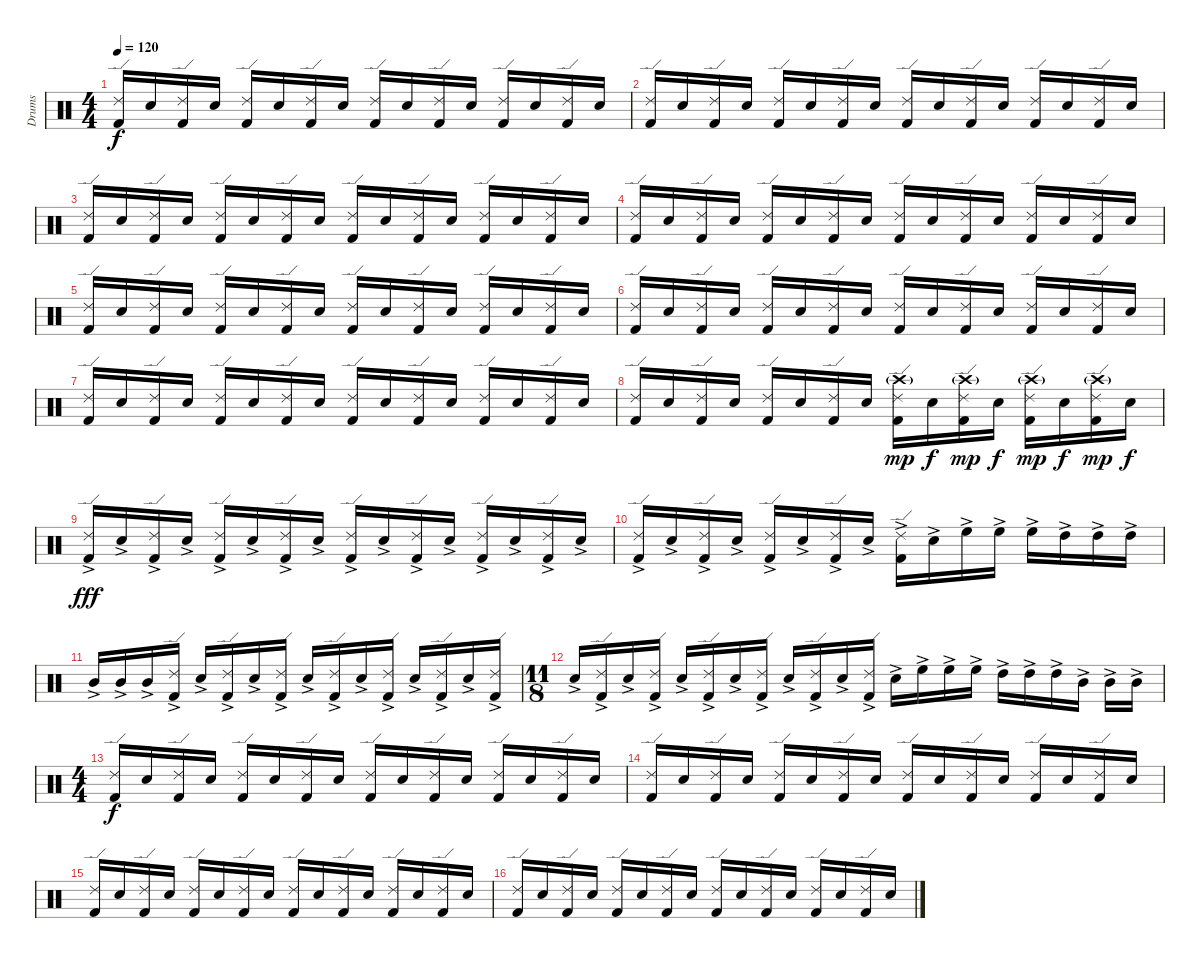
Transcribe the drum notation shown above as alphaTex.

\track ("Drums" "Drums") {instrument percussion}
\staff {score}
\articulation defaults
\ts (4 4)
\tempo 120
\clef neutral
\ks c
("Ride (edge) 2" "Kick (hit) 2").16{dy f} "Electric Snare (hit)".16 ("Ride (edge) 2" "Kick (hit) 2").16 "Electric Snare (hit)".16 ("Ride (edge) 2" "Kick (hit) 2").16 "Electric Snare (hit)".16 ("Ride (edge) 2" "Kick (hit) 2").16 "Electric Snare (hit)".16 ("Ride (edge) 2" "Kick (hit) 2").16 "Electric Snare (hit)".16 ("Ride (edge) 2" "Kick (hit) 2").16 "Electric Snare (hit)".16 ("Ride (edge) 2" "Kick (hit) 2").16 "Electric Snare (hit)".16 ("Ride (edge) 2" "Kick (hit) 2").16 "Electric Snare (hit)".16 |
("Ride (edge) 2" "Kick (hit) 2").16 "Electric Snare (hit)".16 ("Ride (edge) 2" "Kick (hit) 2").16 "Electric Snare (hit)".16 ("Ride (edge) 2" "Kick (hit) 2").16 "Electric Snare (hit)".16 ("Ride (edge) 2" "Kick (hit) 2").16 "Electric Snare (hit)".16 ("Ride (edge) 2" "Kick (hit) 2").16 "Electric Snare (hit)".16 ("Ride (edge) 2" "Kick (hit) 2").16 "Electric Snare (hit)".16 ("Ride (edge) 2" "Kick (hit) 2").16 "Electric Snare (hit)".16 ("Ride (edge) 2" "Kick (hit) 2").16 "Electric Snare (hit)".16 |
("Ride (edge) 2" "Kick (hit) 2").16 "Electric Snare (hit)".16 ("Ride (edge) 2" "Kick (hit) 2").16 "Electric Snare (hit)".16 ("Ride (edge) 2" "Kick (hit) 2").16 "Electric Snare (hit)".16 ("Ride (edge) 2" "Kick (hit) 2").16 "Electric Snare (hit)".16 ("Ride (edge) 2" "Kick (hit) 2").16 "Electric Snare (hit)".16 ("Ride (edge) 2" "Kick (hit) 2").16 "Electric Snare (hit)".16 ("Ride (edge) 2" "Kick (hit) 2").16 "Electric Snare (hit)".16 ("Ride (edge) 2" "Kick (hit) 2").16 "Electric Snare (hit)".16 |
("Ride (edge) 2" "Kick (hit) 2").16 "Electric Snare (hit)".16 ("Ride (edge) 2" "Kick (hit) 2").16 "Electric Snare (hit)".16 ("Ride (edge) 2" "Kick (hit) 2").16 "Electric Snare (hit)".16 ("Ride (edge) 2" "Kick (hit) 2").16 "Electric Snare (hit)".16 ("Ride (edge) 2" "Kick (hit) 2").16 "Electric Snare (hit)".16 ("Ride (edge) 2" "Kick (hit) 2").16 "Electric Snare (hit)".16 ("Ride (edge) 2" "Kick (hit) 2").16 "Electric Snare (hit)".16 ("Ride (edge) 2" "Kick (hit) 2").16 "Electric Snare (hit)".16 |
("Ride (edge) 2" "Kick (hit) 2").16 "Electric Snare (hit)".16 ("Ride (edge) 2" "Kick (hit) 2").16 "Electric Snare (hit)".16 ("Ride (edge) 2" "Kick (hit) 2").16 "Electric Snare (hit)".16 ("Ride (edge) 2" "Kick (hit) 2").16 "Electric Snare (hit)".16 ("Ride (edge) 2" "Kick (hit) 2").16 "Electric Snare (hit)".16 ("Ride (edge) 2" "Kick (hit) 2").16 "Electric Snare (hit)".16 ("Ride (edge) 2" "Kick (hit) 2").16 "Electric Snare (hit)".16 ("Ride (edge) 2" "Kick (hit) 2").16 "Electric Snare (hit)".16 |
("Ride (edge) 2" "Kick (hit) 2").16 "Electric Snare (hit)".16 ("Ride (edge) 2" "Kick (hit) 2").16 "Electric Snare (hit)".16 ("Ride (edge) 2" "Kick (hit) 2").16 "Electric Snare (hit)".16 ("Ride (edge) 2" "Kick (hit) 2").16 "Electric Snare (hit)".16 ("Ride (edge) 2" "Kick (hit) 2").16 "Electric Snare (hit)".16 ("Ride (edge) 2" "Kick (hit) 2").16 "Electric Snare (hit)".16 ("Ride (edge) 2" "Kick (hit) 2").16 "Electric Snare (hit)".16 ("Ride (edge) 2" "Kick (hit) 2").16 "Electric Snare (hit)".16 |
("Ride (edge) 2" "Kick (hit) 2").16 "Electric Snare (hit)".16 ("Ride (edge) 2" "Kick (hit) 2").16 "Electric Snare (hit)".16 ("Ride (edge) 2" "Kick (hit) 2").16 "Electric Snare (hit)".16 ("Ride (edge) 2" "Kick (hit) 2").16 "Electric Snare (hit)".16 ("Ride (edge) 2" "Kick (hit) 2").16 "Electric Snare (hit)".16 ("Ride (edge) 2" "Kick (hit) 2").16 "Electric Snare (hit)".16 ("Ride (edge) 2" "Kick (hit) 2").16 "Electric Snare (hit)".16 ("Ride (edge) 2" "Kick (hit) 2").16 "Electric Snare (hit)".16 |
("Ride (edge) 2" "Kick (hit) 2").16 "Electric Snare (hit)".16 ("Ride (edge) 2" "Kick (hit) 2").16 "Electric Snare (hit)".16 ("Ride (edge) 2" "Kick (hit) 2").16 "Electric Snare (hit)".16 ("Ride (edge) 2" "Kick (hit) 2").16 "Electric Snare (hit)".16 ("Ride (edge) 2" "Kick (hit) 2" "Crash high (hit)"{g}).16{dy mp} "Electric Snare (hit)".16{dy f} ("Ride (edge) 2" "Kick (hit) 2" "Crash high (hit)"{g}).16{dy mp} "Electric Snare (hit)".16{dy f} ("Ride (edge) 2" "Kick (hit) 2" "Crash high (hit)"{g}).16{dy mp} "Electric Snare (hit)".16{dy f} ("Ride (edge) 2" "Kick (hit) 2" "Crash high (hit)"{g}).16{dy mp} "Electric Snare (hit)".16{dy f} |
("Ride (edge) 2"{ac} "Kick (hit) 2"{ac}).16{dy fff} "Electric Snare (hit)"{ac}.16 ("Ride (edge) 2"{ac} "Kick (hit) 2"{ac}).16 "Electric Snare (hit)"{ac}.16 ("Ride (edge) 2"{ac} "Kick (hit) 2"{ac}).16 "Electric Snare (hit)"{ac}.16 ("Ride (edge) 2"{ac} "Kick (hit) 2"{ac}).16 "Electric Snare (hit)"{ac}.16 ("Ride (edge) 2"{ac} "Kick (hit) 2"{ac}).16 "Electric Snare (hit)"{ac}.16 ("Ride (edge) 2"{ac} "Kick (hit) 2"{ac}).16 "Electric Snare (hit)"{ac}.16 ("Ride (edge) 2"{ac} "Kick (hit) 2"{ac}).16 "Electric Snare (hit)"{ac}.16 ("Ride (edge) 2"{ac} "Kick (hit) 2"{ac}).16 "Electric Snare (hit)"{ac}.16 |
("Ride (edge) 2"{ac} "Kick (hit) 2"{ac}).16 "Electric Snare (hit)"{ac}.16 ("Ride (edge) 2"{ac} "Kick (hit) 2"{ac}).16 "Electric Snare (hit)"{ac}.16 ("Ride (edge) 2"{ac} "Kick (hit) 2"{ac}).16 "Electric Snare (hit)"{ac}.16 ("Ride (edge) 2"{ac} "Kick (hit) 2"{ac}).16 "Electric Snare (hit)"{ac}.16 ("Ride (edge) 2"{ac} "Kick (hit) 2"{ac}).16 "Electric Snare (hit)"{ac}.16 "High Floor Tom (hit)"{ac}.16 "High Floor Tom (hit)"{ac}.16 "High Floor Tom (hit)"{ac}.16 "High Tom (hit)"{ac}.16 "High Tom (hit)"{ac}.16 "High Tom (hit)"{ac}.16 |
"Mid Tom (hit)"{ac}.16 "Mid Tom (hit)"{ac}.16 "Mid Tom (hit)"{ac}.16 ("Ride (edge) 2"{ac} "Kick (hit) 2"{ac}).16 "Electric Snare (hit)"{ac}.16 ("Ride (edge) 2"{ac} "Kick (hit) 2"{ac}).16 "Electric Snare (hit)"{ac}.16 ("Ride (edge) 2"{ac} "Kick (hit) 2"{ac}).16 "Electric Snare (hit)"{ac}.16 ("Ride (edge) 2"{ac} "Kick (hit) 2"{ac}).16 "Electric Snare (hit)"{ac}.16 ("Ride (edge) 2"{ac} "Kick (hit) 2"{ac}).16 "Electric Snare (hit)"{ac}.16 ("Ride (edge) 2"{ac} "Kick (hit) 2"{ac}).16 "Electric Snare (hit)"{ac}.16 ("Ride (edge) 2"{ac} "Kick (hit) 2"{ac}).16 |
\ts (11 8)
"Electric Snare (hit)"{ac}.16 ("Ride (edge) 2"{ac} "Kick (hit) 2"{ac}).16 "Electric Snare (hit)"{ac}.16 ("Ride (edge) 2"{ac} "Kick (hit) 2"{ac}).16 "Electric Snare (hit)"{ac}.16 ("Ride (edge) 2"{ac} "Kick (hit) 2"{ac}).16 "Electric Snare (hit)"{ac}.16 ("Ride (edge) 2"{ac} "Kick (hit) 2"{ac}).16 "Electric Snare (hit)"{ac}.16 ("Ride (edge) 2"{ac} "Kick (hit) 2"{ac}).16 "Electric Snare (hit)"{ac}.16 ("Ride (edge) 2"{ac} "Kick (hit) 2"{ac}).16 "Electric Snare (hit)"{ac}.16 "High Floor Tom (hit)"{ac}.16 "High Floor Tom (hit)"{ac}.16 "High Floor Tom (hit)"{ac}.16 "High Tom (hit)"{ac}.16 "High Tom (hit)"{ac}.16 "High Tom (hit)"{ac}.16 "Mid Tom (hit)"{ac}.16 "Mid Tom (hit)"{ac}.16 "Mid Tom (hit)"{ac}.16 |
\ts (4 4)
("Ride (edge) 2" "Kick (hit) 2").16{dy f} "Electric Snare (hit)".16 ("Ride (edge) 2" "Kick (hit) 2").16 "Electric Snare (hit)".16 ("Ride (edge) 2" "Kick (hit) 2").16 "Electric Snare (hit)".16 ("Ride (edge) 2" "Kick (hit) 2").16 "Electric Snare (hit)".16 ("Ride (edge) 2" "Kick (hit) 2").16 "Electric Snare (hit)".16 ("Ride (edge) 2" "Kick (hit) 2").16 "Electric Snare (hit)".16 ("Ride (edge) 2" "Kick (hit) 2").16 "Electric Snare (hit)".16 ("Ride (edge) 2" "Kick (hit) 2").16 "Electric Snare (hit)".16 |
("Ride (edge) 2" "Kick (hit) 2").16 "Electric Snare (hit)".16 ("Ride (edge) 2" "Kick (hit) 2").16 "Electric Snare (hit)".16 ("Ride (edge) 2" "Kick (hit) 2").16 "Electric Snare (hit)".16 ("Ride (edge) 2" "Kick (hit) 2").16 "Electric Snare (hit)".16 ("Ride (edge) 2" "Kick (hit) 2").16 "Electric Snare (hit)".16 ("Ride (edge) 2" "Kick (hit) 2").16 "Electric Snare (hit)".16 ("Ride (edge) 2" "Kick (hit) 2").16 "Electric Snare (hit)".16 ("Ride (edge) 2" "Kick (hit) 2").16 "Electric Snare (hit)".16 |
("Ride (edge) 2" "Kick (hit) 2").16 "Electric Snare (hit)".16 ("Ride (edge) 2" "Kick (hit) 2").16 "Electric Snare (hit)".16 ("Ride (edge) 2" "Kick (hit) 2").16 "Electric Snare (hit)".16 ("Ride (edge) 2" "Kick (hit) 2").16 "Electric Snare (hit)".16 ("Ride (edge) 2" "Kick (hit) 2").16 "Electric Snare (hit)".16 ("Ride (edge) 2" "Kick (hit) 2").16 "Electric Snare (hit)".16 ("Ride (edge) 2" "Kick (hit) 2").16 "Electric Snare (hit)".16 ("Ride (edge) 2" "Kick (hit) 2").16 "Electric Snare (hit)".16 |
("Ride (edge) 2" "Kick (hit) 2").16 "Electric Snare (hit)".16 ("Ride (edge) 2" "Kick (hit) 2").16 "Electric Snare (hit)".16 ("Ride (edge) 2" "Kick (hit) 2").16 "Electric Snare (hit)".16 ("Ride (edge) 2" "Kick (hit) 2").16 "Electric Snare (hit)".16 ("Ride (edge) 2" "Kick (hit) 2").16 "Electric Snare (hit)".16 ("Ride (edge) 2" "Kick (hit) 2").16 "Electric Snare (hit)".16 ("Ride (edge) 2" "Kick (hit) 2").16 "Electric Snare (hit)".16 ("Ride (edge) 2" "Kick (hit) 2").16 "Electric Snare (hit)".16
